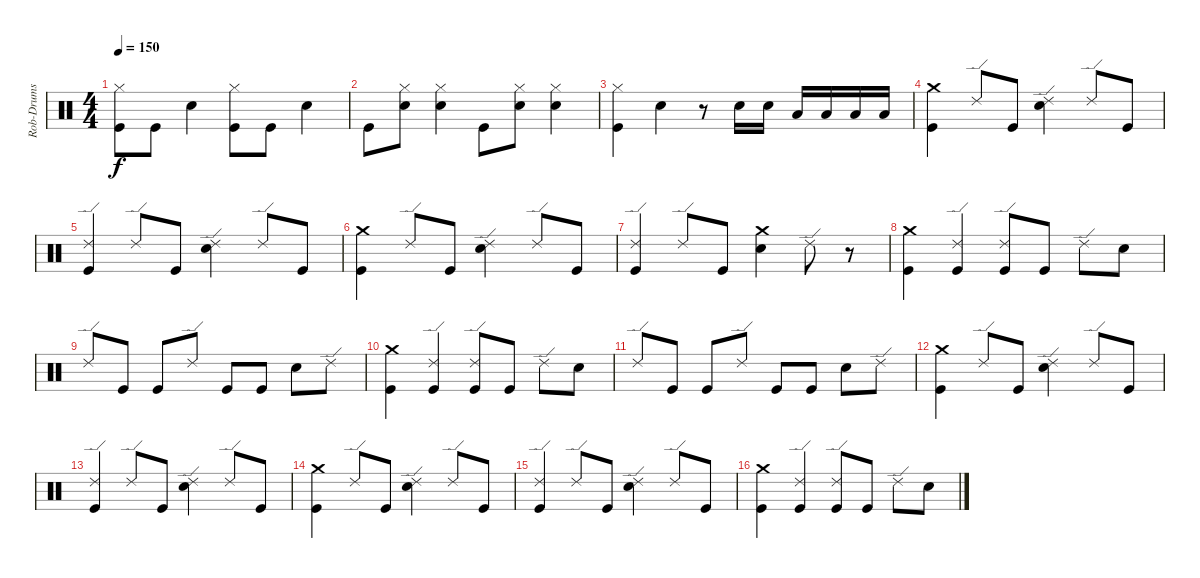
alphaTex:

\track ("Rob-Drums" "Rob-Drums") {instrument percussion}
\staff {score}
\articulation defaults
\ts (4 4)
\tempo 150
\clef neutral
\ks c
("Hi-Hat (closed)" "Kick (hit)").8{dy f} "Kick (hit)".8 "Snare (hit) 2".4 ("Hi-Hat (closed)" "Kick (hit)").8 "Kick (hit)".8 "Snare (hit) 2".4 |
"Kick (hit)".8 ("Hi-Hat (closed)" "Snare (hit) 2").8 ("Hi-Hat (closed)" "Snare (hit) 2").4 "Kick (hit)".8 ("Hi-Hat (closed)" "Snare (hit) 2").8 ("Hi-Hat (closed)" "Snare (hit) 2").4 |
("Hi-Hat (closed)" "Kick (hit)").4 "Snare (hit) 2".4 r.8 "Snare (hit) 2".16 "Snare (hit) 2".16 "Low Tom (hit)".16 "Low Tom (hit)".16 "Low Floor Tom (hit)".16 "Low Floor Tom (hit)".16 |
("Crash medium (hit)" "Kick (hit)").4 "Ride (edge) 2".8 "Kick (hit)".8 ("Ride (edge) 2" "Snare (hit) 2").4 "Ride (edge) 2".8 "Kick (hit)".8 |
("Ride (edge) 2" "Kick (hit)").4 "Ride (edge) 2".8 "Kick (hit)".8 ("Ride (edge) 2" "Snare (hit) 2").4 "Ride (edge) 2".8 "Kick (hit)".8 |
("Crash medium (hit)" "Kick (hit)").4 "Ride (edge) 2".8 "Kick (hit)".8 ("Ride (edge) 2" "Snare (hit) 2").4 "Ride (edge) 2".8 "Kick (hit)".8 |
("Ride (edge) 2" "Kick (hit)").4 "Ride (edge) 2".8 "Kick (hit)".8 ("Crash medium (hit)" "Snare (hit) 2").4 "Ride (edge) 2".8 r.8 |
("Crash medium (hit)" "Kick (hit)").4 ("Ride (edge) 2" "Kick (hit)").4 ("Ride (edge) 2" "Kick (hit)").8 "Kick (hit)".8 "Ride (edge) 2".8 "Snare (hit) 2".8 |
"Ride (edge) 2".8 "Kick (hit)".8 "Kick (hit)".8 "Ride (edge) 2".8 "Kick (hit)".8 "Kick (hit)".8 "Snare (hit) 2".8 "Ride (edge) 2".8 |
("Crash medium (hit)" "Kick (hit)").4 ("Ride (edge) 2" "Kick (hit)").4 ("Ride (edge) 2" "Kick (hit)").8 "Kick (hit)".8 "Ride (edge) 2".8 "Snare (hit) 2".8 |
"Ride (edge) 2".8 "Kick (hit)".8 "Kick (hit)".8 "Ride (edge) 2".8 "Kick (hit)".8 "Kick (hit)".8 "Snare (hit) 2".8 "Ride (edge) 2".8 |
("Crash medium (hit)" "Kick (hit)").4 "Ride (edge) 2".8 "Kick (hit)".8 ("Ride (edge) 2" "Snare (hit) 2").4 "Ride (edge) 2".8 "Kick (hit)".8 |
("Ride (edge) 2" "Kick (hit)").4 "Ride (edge) 2".8 "Kick (hit)".8 ("Ride (edge) 2" "Snare (hit) 2").4 "Ride (edge) 2".8 "Kick (hit)".8 |
("Crash medium (hit)" "Kick (hit)").4 "Ride (edge) 2".8 "Kick (hit)".8 ("Ride (edge) 2" "Snare (hit) 2").4 "Ride (edge) 2".8 "Kick (hit)".8 |
("Ride (edge) 2" "Kick (hit)").4 "Ride (edge) 2".8 "Kick (hit)".8 ("Ride (edge) 2" "Snare (hit) 2").4 "Ride (edge) 2".8 "Kick (hit)".8 |
("Crash medium (hit)" "Kick (hit)").4 ("Ride (edge) 2" "Kick (hit)").4 ("Ride (edge) 2" "Kick (hit)").8 "Kick (hit)".8 "Ride (edge) 2".8 "Snare (hit) 2".8
